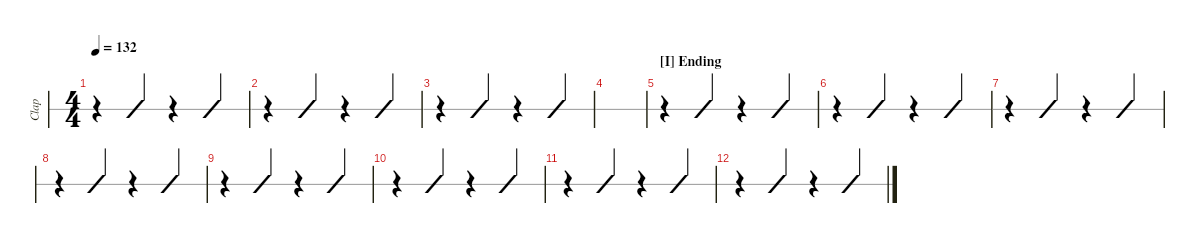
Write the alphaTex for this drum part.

\defaultSystemsLayout 4
\hideDynamics
\bracketExtendMode nobrackets
\otherSystemsTrackNameOrientation horizontal
\track ("Hand Clap" "Clap") {instrument percussion}
\staff {slash}
\articulation defaults
\ts (4 4)
\tempo 132
\clef neutral
\ks f
r.4{dy mf} "Kick (hit)".4 r.4 "Kick (hit)".4 |
r.4 "Kick (hit)".4 r.4 "Kick (hit)".4 |
r.4 "Kick (hit)".4 r.4 "Kick (hit)".4 |
|
\section ("I" "Ending")
r.4 "Kick (hit)".4 r.4 "Kick (hit)".4 |
r.4 "Kick (hit)".4 r.4 "Kick (hit)".4 |
r.4 "Kick (hit)".4 r.4 "Kick (hit)".4 |
r.4 "Kick (hit)".4 r.4 "Kick (hit)".4 |
r.4 "Kick (hit)".4 r.4 "Kick (hit)".4 |
r.4 "Kick (hit)".4 r.4 "Kick (hit)".4 |
r.4 "Kick (hit)".4 r.4 "Kick (hit)".4 |
r.4 "Kick (hit)".4 r.4 "Kick (hit)".4
